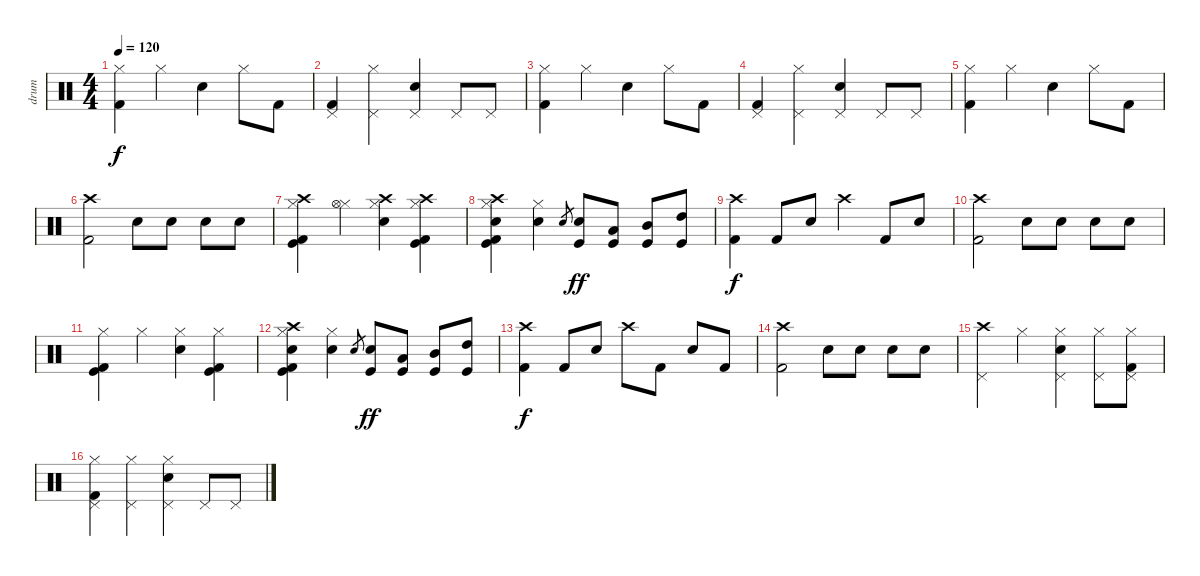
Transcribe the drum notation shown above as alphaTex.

\track ("drum" "drum") {instrument percussion}
\staff {score}
\articulation defaults
\ts (4 4)
\tempo 120
\clef neutral
\ks c
("Hi-Hat (closed)" "Kick (hit) 2").4{dy f} "Hi-Hat (closed)".4 "Snare (hit) 2".4 "Hi-Hat (closed)".8 "Kick (hit) 2".8 |
("Kick (hit) 2" "Pedal Hi-Hat (hit)").4 ("Hi-Hat (closed)" "Pedal Hi-Hat (hit)").4 ("Snare (hit) 2" "Pedal Hi-Hat (hit)").4 "Pedal Hi-Hat (hit)".8 "Pedal Hi-Hat (hit)".8 |
("Hi-Hat (closed)" "Kick (hit) 2").4 "Hi-Hat (closed)".4 "Snare (hit) 2".4 "Hi-Hat (closed)".8 "Kick (hit) 2".8 |
("Kick (hit) 2" "Pedal Hi-Hat (hit)").4 ("Hi-Hat (closed)" "Pedal Hi-Hat (hit)").4 ("Snare (hit) 2" "Pedal Hi-Hat (hit)").4 "Pedal Hi-Hat (hit)".8 "Pedal Hi-Hat (hit)".8 |
("Hi-Hat (closed)" "Kick (hit) 2").4 "Hi-Hat (closed)".4 "Snare (hit) 2".4 "Hi-Hat (closed)".8 "Kick (hit) 2".8 |
("Crash high (hit)" "Kick (hit) 2").2 "Electric Snare (hit)".8 "Electric Snare (hit)".8 "Electric Snare (hit)".8 "Electric Snare (hit)".8 |
("Hi-Hat (closed)" "Crash high (hit)" "Kick (hit) 2" "Kick (hit)").4 ("Hi-Hat (closed)" "Hi-Hat (open)").4 ("Hi-Hat (closed)" "Crash high (hit)" "Electric Snare (hit)").4 ("Hi-Hat (closed)" "Crash high (hit)" "Kick (hit) 2" "Kick (hit)").4 |
("Hi-Hat (closed)" "Crash high (hit)" "Electric Snare (hit)" "Kick (hit) 2" "Kick (hit)").4 ("Hi-Hat (closed)" "Electric Snare (hit)").4 "Electric Snare (hit)".8{gr} ("Electric Snare (hit)" "Kick (hit)").8{dy ff} ("Low Tom (hit)" "Kick (hit)").8 ("Mid Tom (hit)" "Kick (hit)").8 ("High Tom (hit)" "Kick (hit)").8 |
("Crash high (hit)" "Kick (hit) 2").4{dy f} "Kick (hit) 2".8 "Snare (hit) 2".8 "Crash high (hit)".4 "Kick (hit) 2".8 "Snare (hit) 2".8 |
("Crash high (hit)" "Kick (hit) 2").2 "Electric Snare (hit)".8 "Electric Snare (hit)".8 "Electric Snare (hit)".8 "Electric Snare (hit)".8 |
("Hi-Hat (closed)" "Kick (hit) 2" "Kick (hit)").4 "Hi-Hat (closed)".4 ("Hi-Hat (closed)" "Electric Snare (hit)").4 ("Hi-Hat (closed)" "Kick (hit) 2" "Kick (hit)").4 |
("Hi-Hat (closed)" "Crash high (hit)" "Electric Snare (hit)" "Kick (hit) 2" "Kick (hit)").4 ("Hi-Hat (closed)" "Electric Snare (hit)").4 "Electric Snare (hit)".8{gr} ("Electric Snare (hit)" "Kick (hit)").8{dy ff} ("Low Tom (hit)" "Kick (hit)").8 ("Mid Tom (hit)" "Kick (hit)").8 ("High Tom (hit)" "Kick (hit)").8 |
("Crash high (hit)" "Kick (hit) 2").4{dy f} "Kick (hit) 2".8 "Snare (hit) 2".8 "Crash high (hit)".8 "Kick (hit) 2".8 "Snare (hit) 2".8 "Kick (hit) 2".8 |
("Crash high (hit)" "Kick (hit) 2").2 "Electric Snare (hit)".8 "Electric Snare (hit)".8 "Electric Snare (hit)".8 "Electric Snare (hit)".8 |
("Crash high (hit)" "Pedal Hi-Hat (hit)").4 "Hi-Hat (closed)".4 ("Snare (hit) 2" "Pedal Hi-Hat (hit)" "Hi-Hat (closed)").4 ("Hi-Hat (closed)" "Pedal Hi-Hat (hit)").8 ("Kick (hit) 2" "Pedal Hi-Hat (hit)" "Hi-Hat (closed)").8 |
("Kick (hit) 2" "Pedal Hi-Hat (hit)" "Hi-Hat (closed)").4 ("Hi-Hat (closed)" "Pedal Hi-Hat (hit)").4 ("Snare (hit) 2" "Pedal Hi-Hat (hit)" "Hi-Hat (closed)").4 "Pedal Hi-Hat (hit)".8 "Pedal Hi-Hat (hit)".8
